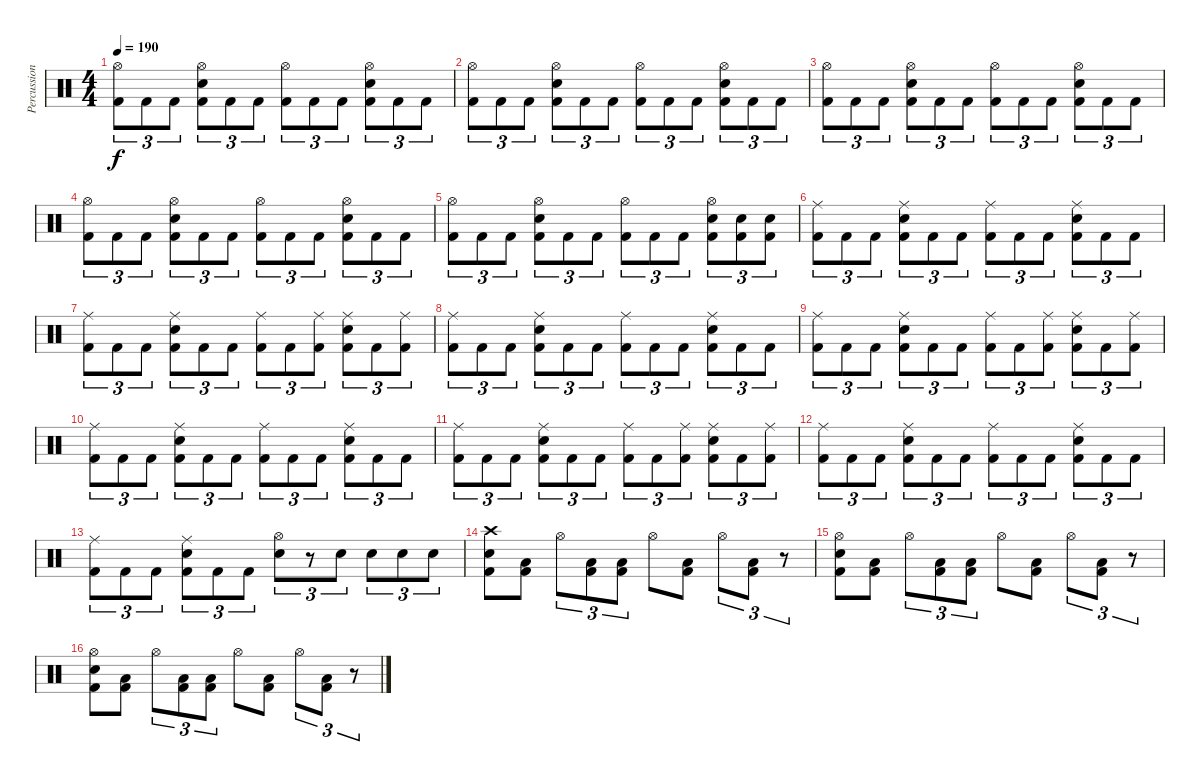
\track ("Percussions" "Percussion") {instrument percussion}
\staff {score}
\articulation defaults
\ts (4 4)
\tempo 190
\clef neutral
\ks c
("Hi-Hat (open)" "Kick (hit) 2").8{tu (3 2) dy f} "Kick (hit) 2".8{tu (3 2)} "Kick (hit) 2".8{tu (3 2)} ("Hi-Hat (open)" "Snare (hit) 2" "Kick (hit) 2").8{tu (3 2)} "Kick (hit) 2".8{tu (3 2)} "Kick (hit) 2".8{tu (3 2)} ("Hi-Hat (open)" "Kick (hit) 2").8{tu (3 2)} "Kick (hit) 2".8{tu (3 2)} "Kick (hit) 2".8{tu (3 2)} ("Hi-Hat (open)" "Snare (hit) 2" "Kick (hit) 2").8{tu (3 2)} "Kick (hit) 2".8{tu (3 2)} "Kick (hit) 2".8{tu (3 2)} |
("Hi-Hat (open)" "Kick (hit) 2").8{tu (3 2)} "Kick (hit) 2".8{tu (3 2)} "Kick (hit) 2".8{tu (3 2)} ("Hi-Hat (open)" "Snare (hit) 2" "Kick (hit) 2").8{tu (3 2)} "Kick (hit) 2".8{tu (3 2)} "Kick (hit) 2".8{tu (3 2)} ("Hi-Hat (open)" "Kick (hit) 2").8{tu (3 2)} "Kick (hit) 2".8{tu (3 2)} "Kick (hit) 2".8{tu (3 2)} ("Hi-Hat (open)" "Snare (hit) 2" "Kick (hit) 2").8{tu (3 2)} "Kick (hit) 2".8{tu (3 2)} "Kick (hit) 2".8{tu (3 2)} |
("Hi-Hat (open)" "Kick (hit) 2").8{tu (3 2)} "Kick (hit) 2".8{tu (3 2)} "Kick (hit) 2".8{tu (3 2)} ("Hi-Hat (open)" "Snare (hit) 2" "Kick (hit) 2").8{tu (3 2)} "Kick (hit) 2".8{tu (3 2)} "Kick (hit) 2".8{tu (3 2)} ("Hi-Hat (open)" "Kick (hit) 2").8{tu (3 2)} "Kick (hit) 2".8{tu (3 2)} "Kick (hit) 2".8{tu (3 2)} ("Hi-Hat (open)" "Snare (hit) 2" "Kick (hit) 2").8{tu (3 2)} "Kick (hit) 2".8{tu (3 2)} "Kick (hit) 2".8{tu (3 2)} |
("Hi-Hat (open)" "Kick (hit) 2").8{tu (3 2)} "Kick (hit) 2".8{tu (3 2)} "Kick (hit) 2".8{tu (3 2)} ("Hi-Hat (open)" "Snare (hit) 2" "Kick (hit) 2").8{tu (3 2)} "Kick (hit) 2".8{tu (3 2)} "Kick (hit) 2".8{tu (3 2)} ("Hi-Hat (open)" "Kick (hit) 2").8{tu (3 2)} "Kick (hit) 2".8{tu (3 2)} "Kick (hit) 2".8{tu (3 2)} ("Hi-Hat (open)" "Snare (hit) 2" "Kick (hit) 2").8{tu (3 2)} "Kick (hit) 2".8{tu (3 2)} "Kick (hit) 2".8{tu (3 2)} |
("Hi-Hat (open)" "Kick (hit) 2").8{tu (3 2)} "Kick (hit) 2".8{tu (3 2)} "Kick (hit) 2".8{tu (3 2)} ("Hi-Hat (open)" "Snare (hit) 2" "Kick (hit) 2").8{tu (3 2)} "Kick (hit) 2".8{tu (3 2)} "Kick (hit) 2".8{tu (3 2)} ("Hi-Hat (open)" "Kick (hit) 2").8{tu (3 2)} "Kick (hit) 2".8{tu (3 2)} "Kick (hit) 2".8{tu (3 2)} ("Hi-Hat (open)" "Snare (hit) 2" "Kick (hit) 2").8{tu (3 2)} ("Snare (hit) 2" "Kick (hit) 2").8{tu (3 2)} ("Snare (hit) 2" "Kick (hit) 2").8{tu (3 2)} |
("Ride (middle)" "Kick (hit) 2").8{tu (3 2)} "Kick (hit) 2".8{tu (3 2)} "Kick (hit) 2".8{tu (3 2)} ("Ride (middle)" "Snare (hit) 2" "Kick (hit) 2").8{tu (3 2)} "Kick (hit) 2".8{tu (3 2)} "Kick (hit) 2".8{tu (3 2)} ("Ride (middle)" "Kick (hit) 2").8{tu (3 2)} "Kick (hit) 2".8{tu (3 2)} "Kick (hit) 2".8{tu (3 2)} ("Ride (middle)" "Snare (hit) 2" "Kick (hit) 2").8{tu (3 2)} "Kick (hit) 2".8{tu (3 2)} "Kick (hit) 2".8{tu (3 2)} |
("Ride (middle)" "Kick (hit) 2").8{tu (3 2)} "Kick (hit) 2".8{tu (3 2)} "Kick (hit) 2".8{tu (3 2)} ("Ride (middle)" "Snare (hit) 2" "Kick (hit) 2").8{tu (3 2)} "Kick (hit) 2".8{tu (3 2)} "Kick (hit) 2".8{tu (3 2)} ("Ride (middle)" "Kick (hit) 2").8{tu (3 2)} "Kick (hit) 2".8{tu (3 2)} ("Ride (middle)" "Kick (hit) 2").8{tu (3 2)} ("Ride (middle)" "Snare (hit) 2" "Kick (hit) 2").8{tu (3 2)} "Kick (hit) 2".8{tu (3 2)} ("Ride (middle)" "Kick (hit) 2").8{tu (3 2)} |
("Ride (middle)" "Kick (hit) 2").8{tu (3 2)} "Kick (hit) 2".8{tu (3 2)} "Kick (hit) 2".8{tu (3 2)} ("Ride (middle)" "Snare (hit) 2" "Kick (hit) 2").8{tu (3 2)} "Kick (hit) 2".8{tu (3 2)} "Kick (hit) 2".8{tu (3 2)} ("Ride (middle)" "Kick (hit) 2").8{tu (3 2)} "Kick (hit) 2".8{tu (3 2)} "Kick (hit) 2".8{tu (3 2)} ("Ride (middle)" "Snare (hit) 2" "Kick (hit) 2").8{tu (3 2)} "Kick (hit) 2".8{tu (3 2)} "Kick (hit) 2".8{tu (3 2)} |
("Ride (middle)" "Kick (hit) 2").8{tu (3 2)} "Kick (hit) 2".8{tu (3 2)} "Kick (hit) 2".8{tu (3 2)} ("Ride (middle)" "Snare (hit) 2" "Kick (hit) 2").8{tu (3 2)} "Kick (hit) 2".8{tu (3 2)} "Kick (hit) 2".8{tu (3 2)} ("Ride (middle)" "Kick (hit) 2").8{tu (3 2)} "Kick (hit) 2".8{tu (3 2)} ("Ride (middle)" "Kick (hit) 2").8{tu (3 2)} ("Ride (middle)" "Snare (hit) 2" "Kick (hit) 2").8{tu (3 2)} "Kick (hit) 2".8{tu (3 2)} ("Ride (middle)" "Kick (hit) 2").8{tu (3 2)} |
("Ride (middle)" "Kick (hit) 2").8{tu (3 2)} "Kick (hit) 2".8{tu (3 2)} "Kick (hit) 2".8{tu (3 2)} ("Ride (middle)" "Snare (hit) 2" "Kick (hit) 2").8{tu (3 2)} "Kick (hit) 2".8{tu (3 2)} "Kick (hit) 2".8{tu (3 2)} ("Ride (middle)" "Kick (hit) 2").8{tu (3 2)} "Kick (hit) 2".8{tu (3 2)} "Kick (hit) 2".8{tu (3 2)} ("Ride (middle)" "Snare (hit) 2" "Kick (hit) 2").8{tu (3 2)} "Kick (hit) 2".8{tu (3 2)} "Kick (hit) 2".8{tu (3 2)} |
("Ride (middle)" "Kick (hit) 2").8{tu (3 2)} "Kick (hit) 2".8{tu (3 2)} "Kick (hit) 2".8{tu (3 2)} ("Ride (middle)" "Snare (hit) 2" "Kick (hit) 2").8{tu (3 2)} "Kick (hit) 2".8{tu (3 2)} "Kick (hit) 2".8{tu (3 2)} ("Ride (middle)" "Kick (hit) 2").8{tu (3 2)} "Kick (hit) 2".8{tu (3 2)} ("Ride (middle)" "Kick (hit) 2").8{tu (3 2)} ("Ride (middle)" "Snare (hit) 2" "Kick (hit) 2").8{tu (3 2)} "Kick (hit) 2".8{tu (3 2)} ("Ride (middle)" "Kick (hit) 2").8{tu (3 2)} |
("Ride (middle)" "Kick (hit) 2").8{tu (3 2)} "Kick (hit) 2".8{tu (3 2)} "Kick (hit) 2".8{tu (3 2)} ("Ride (middle)" "Snare (hit) 2" "Kick (hit) 2").8{tu (3 2)} "Kick (hit) 2".8{tu (3 2)} "Kick (hit) 2".8{tu (3 2)} ("Ride (middle)" "Kick (hit) 2").8{tu (3 2)} "Kick (hit) 2".8{tu (3 2)} "Kick (hit) 2".8{tu (3 2)} ("Ride (middle)" "Snare (hit) 2" "Kick (hit) 2").8{tu (3 2)} "Kick (hit) 2".8{tu (3 2)} "Kick (hit) 2".8{tu (3 2)} |
("Ride (middle)" "Kick (hit) 2").8{tu (3 2)} "Kick (hit) 2".8{tu (3 2)} "Kick (hit) 2".8{tu (3 2)} ("Ride (middle)" "Snare (hit) 2" "Kick (hit) 2").8{tu (3 2)} "Kick (hit) 2".8{tu (3 2)} "Kick (hit) 2".8{tu (3 2)} ("Hi-Hat (open)" "Snare (hit) 2").8{tu (3 2)} r.8{tu (3 2)} "Snare (hit) 2".8{tu (3 2)} "Snare (hit) 2".8{tu (3 2)} "Snare (hit) 2".8{tu (3 2)} "Snare (hit) 2".8{tu (3 2)} |
("Crash high (hit)" "Snare (hit) 2" "Kick (hit) 2").8 ("Low Floor Tom (hit)" "Kick (hit) 2").8 "Hi-Hat (open)".8{tu (3 2)} ("Low Floor Tom (hit)" "Kick (hit) 2").8{tu (3 2)} ("Low Floor Tom (hit)" "Kick (hit) 2").8{tu (3 2)} "Hi-Hat (open)".8 ("Low Floor Tom (hit)" "Kick (hit) 2").8 "Hi-Hat (open)".8{tu (3 2)} ("Low Floor Tom (hit)" "Kick (hit) 2").8{tu (3 2)} r.8{tu (3 2)} |
("Hi-Hat (open)" "Snare (hit) 2" "Kick (hit) 2").8 ("Low Floor Tom (hit)" "Kick (hit) 2").8 "Hi-Hat (open)".8{tu (3 2)} ("Low Floor Tom (hit)" "Kick (hit) 2").8{tu (3 2)} ("Low Floor Tom (hit)" "Kick (hit) 2").8{tu (3 2)} "Hi-Hat (open)".8 ("Low Floor Tom (hit)" "Kick (hit) 2").8 "Hi-Hat (open)".8{tu (3 2)} ("Low Floor Tom (hit)" "Kick (hit) 2").8{tu (3 2)} r.8{tu (3 2)} |
("Hi-Hat (open)" "Snare (hit) 2" "Kick (hit) 2").8 ("Low Floor Tom (hit)" "Kick (hit) 2").8 "Hi-Hat (open)".8{tu (3 2)} ("Low Floor Tom (hit)" "Kick (hit) 2").8{tu (3 2)} ("Low Floor Tom (hit)" "Kick (hit) 2").8{tu (3 2)} "Hi-Hat (open)".8 ("Low Floor Tom (hit)" "Kick (hit) 2").8 "Hi-Hat (open)".8{tu (3 2)} ("Low Floor Tom (hit)" "Kick (hit) 2").8{tu (3 2)} r.8{tu (3 2)}
